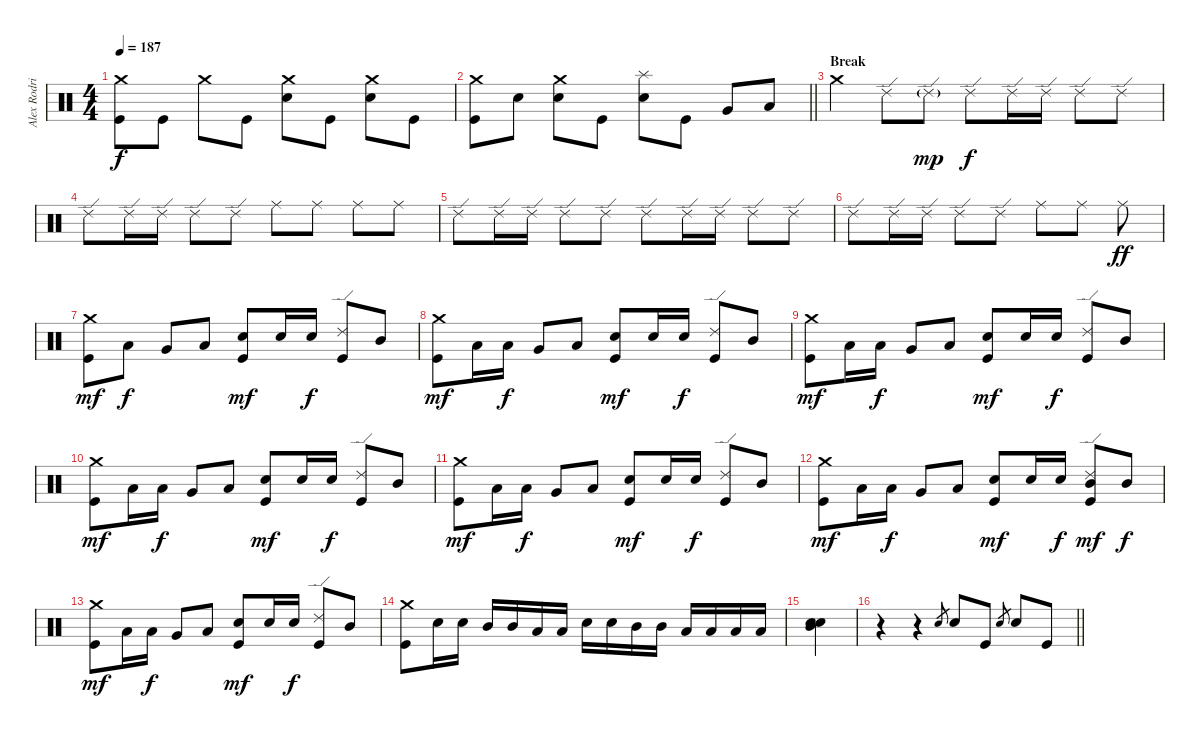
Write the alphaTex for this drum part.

\track ("Alex Rodriguez" "Alex Rodri") {instrument percussion}
\staff {score}
\articulation defaults
\ts (4 4)
\tempo 187
\clef neutral
\ks c
("Crash medium (hit)" "Kick (hit)").8{dy f} "Kick (hit)".8 "Crash medium (hit)".8 "Kick (hit)".8 ("Crash medium (hit)" "Electric Snare (hit)").8 "Kick (hit)".8 ("Crash medium (hit)" "Electric Snare (hit)").8 "Kick (hit)".8 |
\barLineRight lightlight
("Crash medium (hit)" "Kick (hit)").8 "Electric Snare (hit)".8 ("Crash medium (hit)" "Electric Snare (hit)").8 "Kick (hit)".8 ("Splash (hit)" "Electric Snare (hit)").8 "Kick (hit)".8 "Very Low Tom (hit)".8 "Low Floor Tom (hit)".8 |
\section ("" "Break")
"Crash medium (hit)".4 "Ride (edge) 2".8 "Ride (edge) 2"{g}.8{dy mp} "Ride (edge) 2".8{dy f} "Ride (edge) 2".16 "Ride (edge) 2".16 "Ride (edge) 2".8 "Ride (edge) 2".8 |
"Ride (edge) 2".8 "Ride (edge) 2".16 "Ride (edge) 2".16 "Ride (edge) 2".8 "Ride (edge) 2".8 "Ride (middle)".8 "Ride (middle)".8 "Ride (middle)".8 "Ride (middle)".8 |
"Ride (edge) 2".8 "Ride (edge) 2".16 "Ride (edge) 2".16 "Ride (edge) 2".8 "Ride (edge) 2".8 "Ride (edge) 2".8 "Ride (edge) 2".16 "Ride (edge) 2".16 "Ride (edge) 2".8 "Ride (edge) 2".8 |
"Ride (edge) 2".8 "Ride (edge) 2".16 "Ride (edge) 2".16 "Ride (edge) 2".8 "Ride (edge) 2".8 "Ride (middle)".8 "Ride (middle)".8 "Ride (middle)".8{dy ff} |
("Crash medium (hit)" "Kick (hit)").8{dy mf} "Low Floor Tom (hit)".8{dy f} "Very Low Tom (hit)".8 "Low Tom (hit)".8 ("Snare (hit) 2" "Kick (hit)").8{dy mf} "Electric Snare (hit)".16 "Electric Snare (hit)".16{dy f} ("Ride (edge) 2" "Kick (hit)").8 "Mid Tom (hit)".8 |
("Crash medium (hit)" "Kick (hit)").8{dy mf} "Low Floor Tom (hit)".16 "Low Floor Tom (hit)".16{dy f} "Very Low Tom (hit)".8 "Low Tom (hit)".8 ("Snare (hit) 2" "Kick (hit)").8{dy mf} "Electric Snare (hit)".16 "Electric Snare (hit)".16{dy f} ("Ride (edge) 2" "Kick (hit)").8 "Mid Tom (hit)".8 |
("Crash medium (hit)" "Kick (hit)").8{dy mf} "Low Floor Tom (hit)".16 "Low Floor Tom (hit)".16{dy f} "Very Low Tom (hit)".8 "Low Tom (hit)".8 ("Snare (hit) 2" "Kick (hit)").8{dy mf} "Electric Snare (hit)".16 "Electric Snare (hit)".16{dy f} ("Ride (edge) 2" "Kick (hit)").8 "Mid Tom (hit)".8 |
("Crash medium (hit)" "Kick (hit)").8{dy mf} "Low Floor Tom (hit)".16 "Low Floor Tom (hit)".16{dy f} "Very Low Tom (hit)".8 "Low Tom (hit)".8 ("Snare (hit) 2" "Kick (hit)").8{dy mf} "Electric Snare (hit)".16 "Electric Snare (hit)".16{dy f} ("Ride (edge) 2" "Kick (hit)").8 "Mid Tom (hit)".8 |
("Crash medium (hit)" "Kick (hit)").8{dy mf} "Low Floor Tom (hit)".16 "Low Floor Tom (hit)".16{dy f} "Very Low Tom (hit)".8 "Low Tom (hit)".8 ("Snare (hit) 2" "Kick (hit)").8{dy mf} "Electric Snare (hit)".16 "Electric Snare (hit)".16{dy f} ("Ride (edge) 2" "Kick (hit)").8 "Mid Tom (hit)".8 |
("Crash medium (hit)" "Kick (hit)").8{dy mf} "Low Floor Tom (hit)".16 "Low Floor Tom (hit)".16{dy f} "Very Low Tom (hit)".8 "Low Tom (hit)".8 ("Snare (hit) 2" "Kick (hit)").8{dy mf} "Electric Snare (hit)".16 "Electric Snare (hit)".16{dy f} ("Ride (edge) 2" "Mid Tom (hit)" "Kick (hit)").8{dy mf} "Mid Tom (hit)".8{dy f} |
("Crash medium (hit)" "Kick (hit)").8{dy mf} "Low Floor Tom (hit)".16 "Low Floor Tom (hit)".16{dy f} "Very Low Tom (hit)".8 "Low Tom (hit)".8 ("Snare (hit) 2" "Kick (hit)").8{dy mf} "Electric Snare (hit)".16 "Electric Snare (hit)".16{dy f} ("Ride (edge) 2" "Kick (hit)").8 "Mid Tom (hit)".8 |
("Crash medium (hit)" "Kick (hit)").8 "Electric Snare (hit)".16 "Electric Snare (hit)".16 "Mid Tom (hit)".16 "Mid Tom (hit)".16 "Low Tom (hit)".16 "Low Tom (hit)".16 "Electric Snare (hit)".16 "Electric Snare (hit)".16 "Mid Tom (hit)".16 "Mid Tom (hit)".16 "Low Tom (hit)".16 "Low Tom (hit)".16 "Low Tom (hit)".16 "Low Tom (hit)".16 |
("Snare (hit) 2" "Electric Snare (hit)" "Mid Tom (hit)").4 |
\barLineRight lightlight
r.4 r.4 "Electric Snare (hit)".8{gr} "Electric Snare (hit)".8 "Kick (hit)".8 "Electric Snare (hit)".8{gr} "Electric Snare (hit)".8 "Kick (hit)".8
